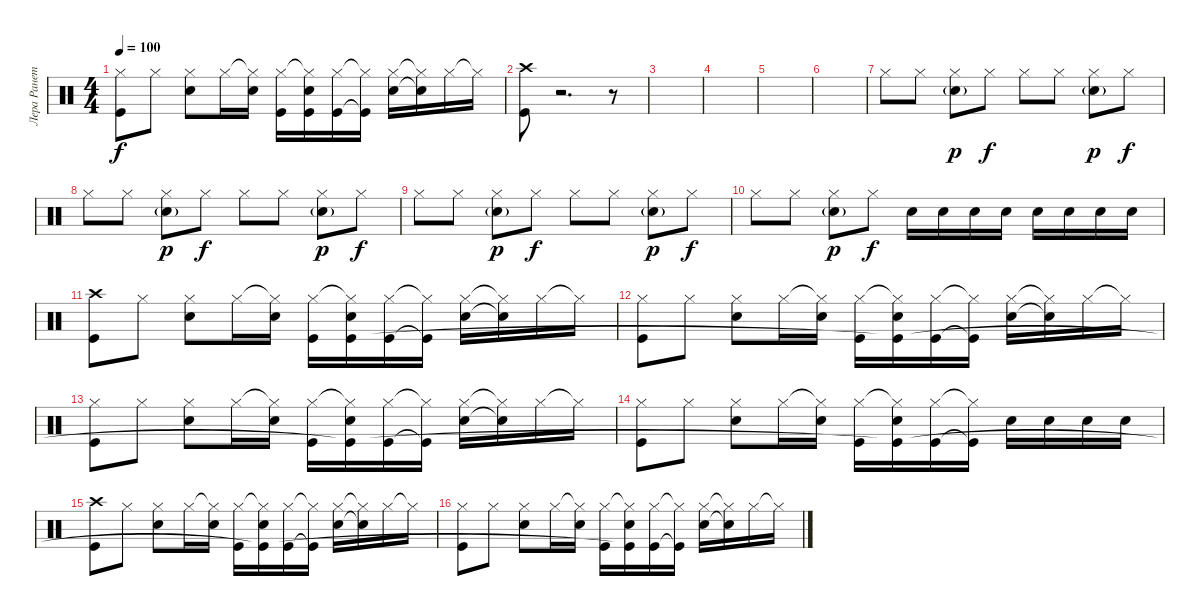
\track ("Лера Ранетка" "Лера Ранет") {instrument percussion}
\staff {score}
\articulation defaults
\ts (4 4)
\tempo 100
\clef neutral
\ks c
("Hi-Hat (closed)" "Kick (hit)").8{dy f} "Hi-Hat (closed)".8 ("Hi-Hat (closed)" "Electric Snare (hit)").8 "Hi-Hat (closed)".16 ("Hi-Hat (closed)"{t} "Electric Snare (hit)").16 ("Hi-Hat (closed)" "Kick (hit)").16 ("Hi-Hat (closed)"{t} "Electric Snare (hit)" "Kick (hit)"{t}).16 ("Hi-Hat (closed)" "Kick (hit)").16 ("Hi-Hat (closed)"{t} "Kick (hit)"{t}).16 ("Hi-Hat (closed)" "Electric Snare (hit)").16 ("Hi-Hat (closed)"{t} "Electric Snare (hit)"{t}).16 "Hi-Hat (closed)".16 "Hi-Hat (closed)"{t}.16 |
("Crash high (hit)" "Kick (hit)").8 r.2{d} r.8 |
|
|
|
|
"Hi-Hat (closed)".8 "Hi-Hat (closed)".8 ("Hi-Hat (closed)" "Electric Snare (hit)"{g}).8{dy p} "Hi-Hat (closed)".8{dy f} "Hi-Hat (closed)".8 "Hi-Hat (closed)".8 ("Hi-Hat (closed)" "Electric Snare (hit)"{g}).8{dy p} "Hi-Hat (closed)".8{dy f} |
"Hi-Hat (closed)".8 "Hi-Hat (closed)".8 ("Hi-Hat (closed)" "Electric Snare (hit)"{g}).8{dy p} "Hi-Hat (closed)".8{dy f} "Hi-Hat (closed)".8 "Hi-Hat (closed)".8 ("Hi-Hat (closed)" "Electric Snare (hit)"{g}).8{dy p} "Hi-Hat (closed)".8{dy f} |
"Hi-Hat (closed)".8 "Hi-Hat (closed)".8 ("Hi-Hat (closed)" "Electric Snare (hit)"{g}).8{dy p} "Hi-Hat (closed)".8{dy f} "Hi-Hat (closed)".8 "Hi-Hat (closed)".8 ("Hi-Hat (closed)" "Electric Snare (hit)"{g}).8{dy p} "Hi-Hat (closed)".8{dy f} |
"Hi-Hat (closed)".8 "Hi-Hat (closed)".8 ("Hi-Hat (closed)" "Electric Snare (hit)"{g}).8{dy p} "Hi-Hat (closed)".8{dy f} "Electric Snare (hit)".16 "Electric Snare (hit)".16 "Electric Snare (hit)".16 "Electric Snare (hit)".16 "Electric Snare (hit)".16 "Electric Snare (hit)".16 "Electric Snare (hit)".16 "Electric Snare (hit)".16 |
("Crash high (hit)" "Kick (hit)").8 "Hi-Hat (closed)".8 ("Hi-Hat (closed)" "Electric Snare (hit)").8 "Hi-Hat (closed)".16 ("Hi-Hat (closed)"{t} "Electric Snare (hit)").16 ("Hi-Hat (closed)" "Kick (hit)").16 ("Hi-Hat (closed)"{t} "Electric Snare (hit)" "Kick (hit)").16 ("Hi-Hat (closed)" "Kick (hit)").16 ("Hi-Hat (closed)"{t} "Kick (hit)"{t}).16 ("Hi-Hat (closed)" "Electric Snare (hit)").16 ("Hi-Hat (closed)"{t} "Electric Snare (hit)"{t}).16 "Hi-Hat (closed)".16 "Hi-Hat (closed)"{t}.16 |
("Hi-Hat (closed)" "Kick (hit)").8 "Hi-Hat (closed)".8 ("Hi-Hat (closed)" "Electric Snare (hit)").8 "Hi-Hat (closed)".16 ("Hi-Hat (closed)"{t} "Electric Snare (hit)").16 ("Hi-Hat (closed)" "Kick (hit)").16 ("Hi-Hat (closed)"{t} "Electric Snare (hit)" "Kick (hit)"{t}).16 ("Hi-Hat (closed)" "Kick (hit)").16 ("Hi-Hat (closed)"{t} "Kick (hit)"{t}).16 ("Hi-Hat (closed)" "Electric Snare (hit)").16 ("Hi-Hat (closed)"{t} "Electric Snare (hit)"{t}).16 "Hi-Hat (closed)".16 "Hi-Hat (closed)"{t}.16 |
("Hi-Hat (closed)" "Kick (hit)").8 "Hi-Hat (closed)".8 ("Hi-Hat (closed)" "Electric Snare (hit)").8 "Hi-Hat (closed)".16 ("Hi-Hat (closed)"{t} "Electric Snare (hit)").16 ("Hi-Hat (closed)" "Kick (hit)").16 ("Hi-Hat (closed)"{t} "Electric Snare (hit)" "Kick (hit)"{t}).16 ("Hi-Hat (closed)" "Kick (hit)").16 ("Hi-Hat (closed)"{t} "Kick (hit)"{t}).16 ("Hi-Hat (closed)" "Electric Snare (hit)").16 ("Hi-Hat (closed)"{t} "Electric Snare (hit)"{t}).16 "Hi-Hat (closed)".16 "Hi-Hat (closed)"{t}.16 |
("Hi-Hat (closed)" "Kick (hit)").8 "Hi-Hat (closed)".8 ("Hi-Hat (closed)" "Electric Snare (hit)").8 "Hi-Hat (closed)".16 ("Hi-Hat (closed)"{t} "Electric Snare (hit)").16 ("Hi-Hat (closed)" "Kick (hit)").16 ("Hi-Hat (closed)"{t} "Electric Snare (hit)" "Kick (hit)"{t}).16 ("Hi-Hat (closed)" "Kick (hit)").16 ("Hi-Hat (closed)"{t} "Kick (hit)"{t}).16 "Electric Snare (hit)".16 "Electric Snare (hit)".16 "Electric Snare (hit)".16 "Electric Snare (hit)".16 |
("Crash high (hit)" "Kick (hit)").8 "Hi-Hat (closed)".8 ("Hi-Hat (closed)" "Electric Snare (hit)").8 "Hi-Hat (closed)".16 ("Hi-Hat (closed)"{t} "Electric Snare (hit)").16 ("Hi-Hat (closed)" "Kick (hit)").16 ("Hi-Hat (closed)"{t} "Electric Snare (hit)" "Kick (hit)"{t}).16 ("Hi-Hat (closed)" "Kick (hit)").16 ("Hi-Hat (closed)"{t} "Kick (hit)"{t}).16 ("Hi-Hat (closed)" "Electric Snare (hit)").16 ("Hi-Hat (closed)"{t} "Electric Snare (hit)"{t}).16 "Hi-Hat (closed)".16 "Hi-Hat (closed)"{t}.16 |
("Hi-Hat (closed)" "Kick (hit)").8 "Hi-Hat (closed)".8 ("Hi-Hat (closed)" "Electric Snare (hit)").8 "Hi-Hat (closed)".16 ("Hi-Hat (closed)"{t} "Electric Snare (hit)").16 ("Hi-Hat (closed)" "Kick (hit)").16 ("Hi-Hat (closed)"{t} "Electric Snare (hit)" "Kick (hit)"{t}).16 ("Hi-Hat (closed)" "Kick (hit)").16 ("Hi-Hat (closed)"{t} "Kick (hit)"{t}).16 ("Hi-Hat (closed)" "Electric Snare (hit)").16 ("Hi-Hat (closed)"{t} "Electric Snare (hit)"{t}).16 "Hi-Hat (closed)".16 "Hi-Hat (closed)"{t}.16
